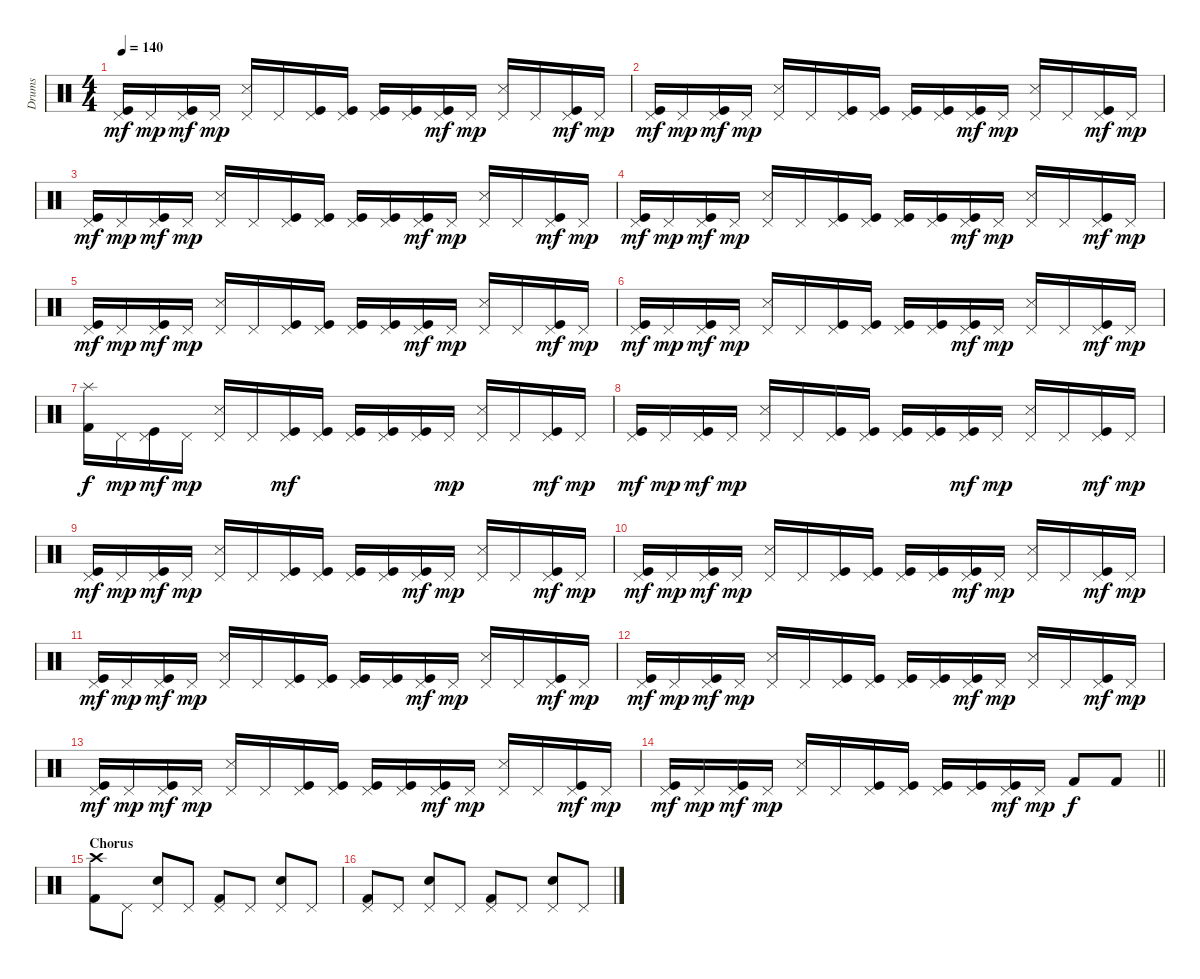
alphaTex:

\track ("Drums" "Drums") {instrument percussion}
\staff {score}
\articulation defaults
\ts (4 4)
\tempo 140
\clef neutral
\ks c
("Pedal Hi-Hat (hit)" "Kick (hit)").16{dy mf} "Pedal Hi-Hat (hit)".16{dy mp} ("Pedal Hi-Hat (hit)" "Kick (hit)").16{dy mf} "Pedal Hi-Hat (hit)".16{dy mp} ("Pedal Hi-Hat (hit)" "Snare (side stick) 3").16 "Pedal Hi-Hat (hit)".16 ("Pedal Hi-Hat (hit)" "Kick (hit)").16 ("Pedal Hi-Hat (hit)" "Kick (hit)").16 ("Pedal Hi-Hat (hit)" "Kick (hit)").16 ("Pedal Hi-Hat (hit)" "Kick (hit)").16 ("Pedal Hi-Hat (hit)" "Kick (hit)").16{dy mf} "Pedal Hi-Hat (hit)".16{dy mp} ("Pedal Hi-Hat (hit)" "Snare (side stick) 3").16 "Pedal Hi-Hat (hit)".16 ("Pedal Hi-Hat (hit)" "Kick (hit)").16{dy mf} "Pedal Hi-Hat (hit)".16{dy mp} |
("Pedal Hi-Hat (hit)" "Kick (hit)").16{dy mf} "Pedal Hi-Hat (hit)".16{dy mp} ("Pedal Hi-Hat (hit)" "Kick (hit)").16{dy mf} "Pedal Hi-Hat (hit)".16{dy mp} ("Pedal Hi-Hat (hit)" "Snare (side stick) 3").16 "Pedal Hi-Hat (hit)".16 ("Pedal Hi-Hat (hit)" "Kick (hit)").16 ("Pedal Hi-Hat (hit)" "Kick (hit)").16 ("Pedal Hi-Hat (hit)" "Kick (hit)").16 ("Pedal Hi-Hat (hit)" "Kick (hit)").16 ("Pedal Hi-Hat (hit)" "Kick (hit)").16{dy mf} "Pedal Hi-Hat (hit)".16{dy mp} ("Pedal Hi-Hat (hit)" "Snare (side stick) 3").16 "Pedal Hi-Hat (hit)".16 ("Pedal Hi-Hat (hit)" "Kick (hit)").16{dy mf} "Pedal Hi-Hat (hit)".16{dy mp} |
("Pedal Hi-Hat (hit)" "Kick (hit)").16{dy mf} "Pedal Hi-Hat (hit)".16{dy mp} ("Pedal Hi-Hat (hit)" "Kick (hit)").16{dy mf} "Pedal Hi-Hat (hit)".16{dy mp} ("Pedal Hi-Hat (hit)" "Snare (side stick) 3").16 "Pedal Hi-Hat (hit)".16 ("Pedal Hi-Hat (hit)" "Kick (hit)").16 ("Pedal Hi-Hat (hit)" "Kick (hit)").16 ("Pedal Hi-Hat (hit)" "Kick (hit)").16 ("Pedal Hi-Hat (hit)" "Kick (hit)").16 ("Pedal Hi-Hat (hit)" "Kick (hit)").16{dy mf} "Pedal Hi-Hat (hit)".16{dy mp} ("Pedal Hi-Hat (hit)" "Snare (side stick) 3").16 "Pedal Hi-Hat (hit)".16 ("Pedal Hi-Hat (hit)" "Kick (hit)").16{dy mf} "Pedal Hi-Hat (hit)".16{dy mp} |
("Pedal Hi-Hat (hit)" "Kick (hit)").16{dy mf} "Pedal Hi-Hat (hit)".16{dy mp} ("Pedal Hi-Hat (hit)" "Kick (hit)").16{dy mf} "Pedal Hi-Hat (hit)".16{dy mp} ("Pedal Hi-Hat (hit)" "Snare (side stick) 3").16 "Pedal Hi-Hat (hit)".16 ("Pedal Hi-Hat (hit)" "Kick (hit)").16 ("Pedal Hi-Hat (hit)" "Kick (hit)").16 ("Pedal Hi-Hat (hit)" "Kick (hit)").16 ("Pedal Hi-Hat (hit)" "Kick (hit)").16 ("Pedal Hi-Hat (hit)" "Kick (hit)").16{dy mf} "Pedal Hi-Hat (hit)".16{dy mp} ("Pedal Hi-Hat (hit)" "Snare (side stick) 3").16 "Pedal Hi-Hat (hit)".16 ("Pedal Hi-Hat (hit)" "Kick (hit)").16{dy mf} "Pedal Hi-Hat (hit)".16{dy mp} |
("Pedal Hi-Hat (hit)" "Kick (hit)").16{dy mf} "Pedal Hi-Hat (hit)".16{dy mp} ("Pedal Hi-Hat (hit)" "Kick (hit)").16{dy mf} "Pedal Hi-Hat (hit)".16{dy mp} ("Pedal Hi-Hat (hit)" "Snare (side stick) 3").16 "Pedal Hi-Hat (hit)".16 ("Pedal Hi-Hat (hit)" "Kick (hit)").16 ("Pedal Hi-Hat (hit)" "Kick (hit)").16 ("Pedal Hi-Hat (hit)" "Kick (hit)").16 ("Pedal Hi-Hat (hit)" "Kick (hit)").16 ("Pedal Hi-Hat (hit)" "Kick (hit)").16{dy mf} "Pedal Hi-Hat (hit)".16{dy mp} ("Pedal Hi-Hat (hit)" "Snare (side stick) 3").16 "Pedal Hi-Hat (hit)".16 ("Pedal Hi-Hat (hit)" "Kick (hit)").16{dy mf} "Pedal Hi-Hat (hit)".16{dy mp} |
("Pedal Hi-Hat (hit)" "Kick (hit)").16{dy mf} "Pedal Hi-Hat (hit)".16{dy mp} ("Pedal Hi-Hat (hit)" "Kick (hit)").16{dy mf} "Pedal Hi-Hat (hit)".16{dy mp} ("Pedal Hi-Hat (hit)" "Snare (side stick) 3").16 "Pedal Hi-Hat (hit)".16 ("Pedal Hi-Hat (hit)" "Kick (hit)").16 ("Pedal Hi-Hat (hit)" "Kick (hit)").16 ("Pedal Hi-Hat (hit)" "Kick (hit)").16 ("Pedal Hi-Hat (hit)" "Kick (hit)").16 ("Pedal Hi-Hat (hit)" "Kick (hit)").16{dy mf} "Pedal Hi-Hat (hit)".16{dy mp} ("Pedal Hi-Hat (hit)" "Snare (side stick) 3").16 "Pedal Hi-Hat (hit)".16 ("Pedal Hi-Hat (hit)" "Kick (hit)").16{dy mf} "Pedal Hi-Hat (hit)".16{dy mp} |
("Splash (hit)" "Kick (hit) 2").16{dy f} "Pedal Hi-Hat (hit)".16{dy mp} ("Pedal Hi-Hat (hit)" "Kick (hit)").16{dy mf} "Pedal Hi-Hat (hit)".16{dy mp} ("Pedal Hi-Hat (hit)" "Snare (side stick) 3").16 "Pedal Hi-Hat (hit)".16 ("Pedal Hi-Hat (hit)" "Kick (hit)").16{dy mf} ("Pedal Hi-Hat (hit)" "Kick (hit)").16 ("Pedal Hi-Hat (hit)" "Kick (hit)").16 ("Pedal Hi-Hat (hit)" "Kick (hit)").16 ("Pedal Hi-Hat (hit)" "Kick (hit)").16 "Pedal Hi-Hat (hit)".16{dy mp} ("Pedal Hi-Hat (hit)" "Snare (side stick) 3").16 "Pedal Hi-Hat (hit)".16 ("Pedal Hi-Hat (hit)" "Kick (hit)").16{dy mf} "Pedal Hi-Hat (hit)".16{dy mp} |
("Pedal Hi-Hat (hit)" "Kick (hit)").16{dy mf} "Pedal Hi-Hat (hit)".16{dy mp} ("Pedal Hi-Hat (hit)" "Kick (hit)").16{dy mf} "Pedal Hi-Hat (hit)".16{dy mp} ("Pedal Hi-Hat (hit)" "Snare (side stick) 3").16 "Pedal Hi-Hat (hit)".16 ("Pedal Hi-Hat (hit)" "Kick (hit)").16 ("Pedal Hi-Hat (hit)" "Kick (hit)").16 ("Pedal Hi-Hat (hit)" "Kick (hit)").16 ("Pedal Hi-Hat (hit)" "Kick (hit)").16 ("Pedal Hi-Hat (hit)" "Kick (hit)").16{dy mf} "Pedal Hi-Hat (hit)".16{dy mp} ("Pedal Hi-Hat (hit)" "Snare (side stick) 3").16 "Pedal Hi-Hat (hit)".16 ("Pedal Hi-Hat (hit)" "Kick (hit)").16{dy mf} "Pedal Hi-Hat (hit)".16{dy mp} |
("Pedal Hi-Hat (hit)" "Kick (hit)").16{dy mf} "Pedal Hi-Hat (hit)".16{dy mp} ("Pedal Hi-Hat (hit)" "Kick (hit)").16{dy mf} "Pedal Hi-Hat (hit)".16{dy mp} ("Pedal Hi-Hat (hit)" "Snare (side stick) 3").16 "Pedal Hi-Hat (hit)".16 ("Pedal Hi-Hat (hit)" "Kick (hit)").16 ("Pedal Hi-Hat (hit)" "Kick (hit)").16 ("Pedal Hi-Hat (hit)" "Kick (hit)").16 ("Pedal Hi-Hat (hit)" "Kick (hit)").16 ("Pedal Hi-Hat (hit)" "Kick (hit)").16{dy mf} "Pedal Hi-Hat (hit)".16{dy mp} ("Pedal Hi-Hat (hit)" "Snare (side stick) 3").16 "Pedal Hi-Hat (hit)".16 ("Pedal Hi-Hat (hit)" "Kick (hit)").16{dy mf} "Pedal Hi-Hat (hit)".16{dy mp} |
("Pedal Hi-Hat (hit)" "Kick (hit)").16{dy mf} "Pedal Hi-Hat (hit)".16{dy mp} ("Pedal Hi-Hat (hit)" "Kick (hit)").16{dy mf} "Pedal Hi-Hat (hit)".16{dy mp} ("Pedal Hi-Hat (hit)" "Snare (side stick) 3").16 "Pedal Hi-Hat (hit)".16 ("Pedal Hi-Hat (hit)" "Kick (hit)").16 ("Pedal Hi-Hat (hit)" "Kick (hit)").16 ("Pedal Hi-Hat (hit)" "Kick (hit)").16 ("Pedal Hi-Hat (hit)" "Kick (hit)").16 ("Pedal Hi-Hat (hit)" "Kick (hit)").16{dy mf} "Pedal Hi-Hat (hit)".16{dy mp} ("Pedal Hi-Hat (hit)" "Snare (side stick) 3").16 "Pedal Hi-Hat (hit)".16 ("Pedal Hi-Hat (hit)" "Kick (hit)").16{dy mf} "Pedal Hi-Hat (hit)".16{dy mp} |
("Pedal Hi-Hat (hit)" "Kick (hit)").16{dy mf} "Pedal Hi-Hat (hit)".16{dy mp} ("Pedal Hi-Hat (hit)" "Kick (hit)").16{dy mf} "Pedal Hi-Hat (hit)".16{dy mp} ("Pedal Hi-Hat (hit)" "Snare (side stick) 3").16 "Pedal Hi-Hat (hit)".16 ("Pedal Hi-Hat (hit)" "Kick (hit)").16 ("Pedal Hi-Hat (hit)" "Kick (hit)").16 ("Pedal Hi-Hat (hit)" "Kick (hit)").16 ("Pedal Hi-Hat (hit)" "Kick (hit)").16 ("Pedal Hi-Hat (hit)" "Kick (hit)").16{dy mf} "Pedal Hi-Hat (hit)".16{dy mp} ("Pedal Hi-Hat (hit)" "Snare (side stick) 3").16 "Pedal Hi-Hat (hit)".16 ("Pedal Hi-Hat (hit)" "Kick (hit)").16{dy mf} "Pedal Hi-Hat (hit)".16{dy mp} |
("Pedal Hi-Hat (hit)" "Kick (hit)").16{dy mf} "Pedal Hi-Hat (hit)".16{dy mp} ("Pedal Hi-Hat (hit)" "Kick (hit)").16{dy mf} "Pedal Hi-Hat (hit)".16{dy mp} ("Pedal Hi-Hat (hit)" "Snare (side stick) 3").16 "Pedal Hi-Hat (hit)".16 ("Pedal Hi-Hat (hit)" "Kick (hit)").16 ("Pedal Hi-Hat (hit)" "Kick (hit)").16 ("Pedal Hi-Hat (hit)" "Kick (hit)").16 ("Pedal Hi-Hat (hit)" "Kick (hit)").16 ("Pedal Hi-Hat (hit)" "Kick (hit)").16{dy mf} "Pedal Hi-Hat (hit)".16{dy mp} ("Pedal Hi-Hat (hit)" "Snare (side stick) 3").16 "Pedal Hi-Hat (hit)".16 ("Pedal Hi-Hat (hit)" "Kick (hit)").16{dy mf} "Pedal Hi-Hat (hit)".16{dy mp} |
("Pedal Hi-Hat (hit)" "Kick (hit)").16{dy mf} "Pedal Hi-Hat (hit)".16{dy mp} ("Pedal Hi-Hat (hit)" "Kick (hit)").16{dy mf} "Pedal Hi-Hat (hit)".16{dy mp} ("Pedal Hi-Hat (hit)" "Snare (side stick) 3").16 "Pedal Hi-Hat (hit)".16 ("Pedal Hi-Hat (hit)" "Kick (hit)").16 ("Pedal Hi-Hat (hit)" "Kick (hit)").16 ("Pedal Hi-Hat (hit)" "Kick (hit)").16 ("Pedal Hi-Hat (hit)" "Kick (hit)").16 ("Pedal Hi-Hat (hit)" "Kick (hit)").16{dy mf} "Pedal Hi-Hat (hit)".16{dy mp} ("Pedal Hi-Hat (hit)" "Snare (side stick) 3").16 "Pedal Hi-Hat (hit)".16 ("Pedal Hi-Hat (hit)" "Kick (hit)").16{dy mf} "Pedal Hi-Hat (hit)".16{dy mp} |
\barLineRight lightlight
("Pedal Hi-Hat (hit)" "Kick (hit)").16{dy mf} "Pedal Hi-Hat (hit)".16{dy mp} ("Pedal Hi-Hat (hit)" "Kick (hit)").16{dy mf} "Pedal Hi-Hat (hit)".16{dy mp} ("Pedal Hi-Hat (hit)" "Snare (side stick) 3").16 "Pedal Hi-Hat (hit)".16 ("Pedal Hi-Hat (hit)" "Kick (hit)").16 ("Pedal Hi-Hat (hit)" "Kick (hit)").16 ("Pedal Hi-Hat (hit)" "Kick (hit)").16 ("Pedal Hi-Hat (hit)" "Kick (hit)").16 ("Pedal Hi-Hat (hit)" "Kick (hit)").16{dy mf} "Pedal Hi-Hat (hit)".16{dy mp} "Kick (hit) 2".8{dy f} "Kick (hit) 2".8 |
\section ("" "Chorus")
("Crash high (hit)" "Kick (hit) 2").8 "Pedal Hi-Hat (hit)".8 ("Pedal Hi-Hat (hit)" "Snare (hit) 2").8 "Pedal Hi-Hat (hit)".8 ("Pedal Hi-Hat (hit)" "Kick (hit) 2").8 "Pedal Hi-Hat (hit)".8 ("Pedal Hi-Hat (hit)" "Snare (hit) 2").8 "Pedal Hi-Hat (hit)".8 |
("Pedal Hi-Hat (hit)" "Kick (hit) 2").8 "Pedal Hi-Hat (hit)".8 ("Pedal Hi-Hat (hit)" "Snare (hit) 2").8 "Pedal Hi-Hat (hit)".8 ("Pedal Hi-Hat (hit)" "Kick (hit) 2").8 "Pedal Hi-Hat (hit)".8 ("Pedal Hi-Hat (hit)" "Snare (hit) 2").8 "Pedal Hi-Hat (hit)".8
